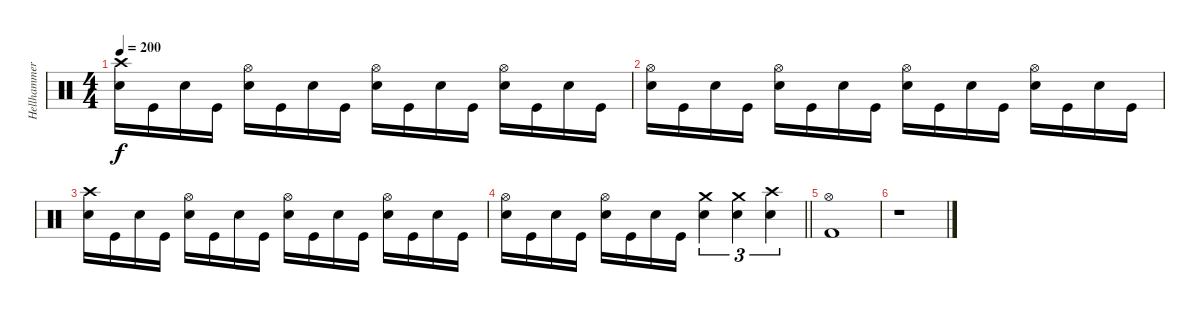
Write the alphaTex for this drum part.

\track ("Hellhammer" "Hellhammer") {instrument percussion}
\staff {score}
\articulation defaults
\ts (4 4)
\tempo 200
\clef neutral
\ks c
("Crash high (hit)" "Snare (hit) 2").16{dy f} "Kick (hit)".16 "Snare (hit) 2".16 "Kick (hit)".16 ("Hi-Hat (open)" "Snare (hit) 2").16 "Kick (hit)".16 "Snare (hit) 2".16 "Kick (hit)".16 ("Hi-Hat (open)" "Snare (hit) 2").16 "Kick (hit)".16 "Snare (hit) 2".16 "Kick (hit)".16 ("Hi-Hat (open)" "Snare (hit) 2").16 "Kick (hit)".16 "Snare (hit) 2".16 "Kick (hit)".16 |
("Hi-Hat (open)" "Snare (hit) 2").16 "Kick (hit)".16 "Snare (hit) 2".16 "Kick (hit)".16 ("Hi-Hat (open)" "Snare (hit) 2").16 "Kick (hit)".16 "Snare (hit) 2".16 "Kick (hit)".16 ("Hi-Hat (open)" "Snare (hit) 2").16 "Kick (hit)".16 "Snare (hit) 2".16 "Kick (hit)".16 ("Hi-Hat (open)" "Snare (hit) 2").16 "Kick (hit)".16 "Snare (hit) 2".16 "Kick (hit)".16 |
("Crash high (hit)" "Snare (hit) 2").16 "Kick (hit)".16 "Snare (hit) 2".16 "Kick (hit)".16 ("Hi-Hat (open)" "Snare (hit) 2").16 "Kick (hit)".16 "Snare (hit) 2".16 "Kick (hit)".16 ("Hi-Hat (open)" "Snare (hit) 2").16 "Kick (hit)".16 "Snare (hit) 2".16 "Kick (hit)".16 ("Hi-Hat (open)" "Snare (hit) 2").16 "Kick (hit)".16 "Snare (hit) 2".16 "Kick (hit)".16 |
\barLineRight lightlight
("Hi-Hat (open)" "Snare (hit) 2").16 "Kick (hit)".16 "Snare (hit) 2".16 "Kick (hit)".16 ("Hi-Hat (open)" "Snare (hit) 2").16 "Kick (hit)".16 "Snare (hit) 2".16 "Kick (hit)".16 ("Crash medium (hit)" "Snare (hit) 2").4{tu (3 2)} ("Crash medium (hit)" "Snare (hit) 2").4{tu (3 2)} ("Crash high (hit)" "Snare (hit) 2").4{tu (3 2)} |
("Hi-Hat (open)" "Kick (hit) 2").1 |
r.1
